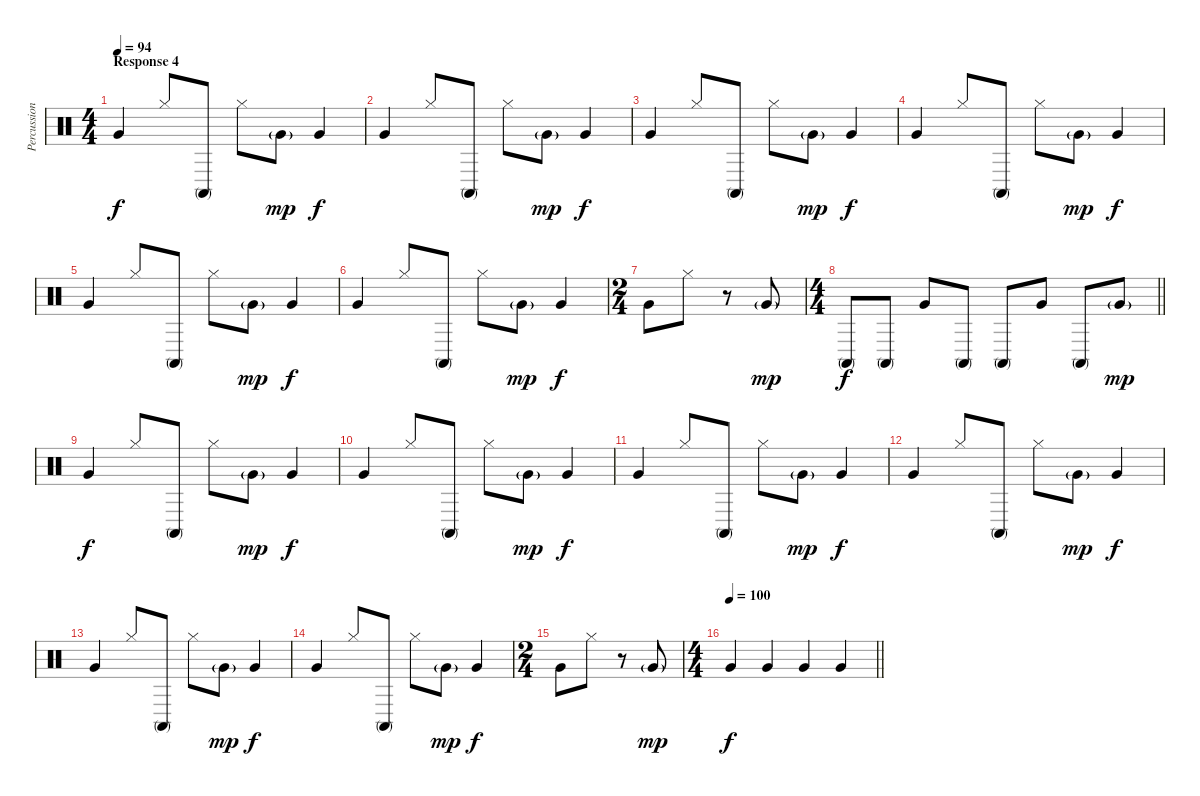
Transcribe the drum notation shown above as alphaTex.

\track ("Percussion" "Percussion") {instrument percussion}
\staff {score}
\articulation defaults
\ts (4 4)
\section ("" "Response 4")
\tempo 94
\clef neutral
\ks c "Very Low Tom (hit)".4{dy f} "Hi-Hat (closed)".8 "Conga high (mute)".8 "Hi-Hat (closed)".8 "Very Low Tom (hit)"{g}.8{dy mp} "Very Low Tom (hit)".4{dy f}
|
"Very Low Tom (hit)".4 "Hi-Hat (closed)".8 "Conga high (mute)".8 "Hi-Hat (closed)".8 "Very Low Tom (hit)"{g}.8{dy mp} "Very Low Tom (hit)".4{dy f} |
"Very Low Tom (hit)".4 "Hi-Hat (closed)".8 "Conga high (mute)".8 "Hi-Hat (closed)".8 "Very Low Tom (hit)"{g}.8{dy mp} "Very Low Tom (hit)".4{dy f} |
"Very Low Tom (hit)".4 "Hi-Hat (closed)".8 "Conga high (mute)".8 "Hi-Hat (closed)".8 "Very Low Tom (hit)"{g}.8{dy mp} "Very Low Tom (hit)".4{dy f} |
"Very Low Tom (hit)".4 "Hi-Hat (closed)".8 "Conga high (mute)".8 "Hi-Hat (closed)".8 "Very Low Tom (hit)"{g}.8{dy mp} "Very Low Tom (hit)".4{dy f} |
"Very Low Tom (hit)".4 "Hi-Hat (closed)".8 "Conga high (mute)".8 "Hi-Hat (closed)".8 "Very Low Tom (hit)"{g}.8{dy mp} "Very Low Tom (hit)".4{dy f} |
\ts (2 4)
"Very Low Tom (hit)".8 "Hi-Hat (closed)".8 r.8 "Very Low Tom (hit)"{g}.8{dy mp} |
\ts (4 4)
\barLineRight lightlight "Conga high (mute)".8{dy f} "Conga high (mute)".8 "Very Low Tom (hit)".8 "Conga high (mute)".8 "Conga high (mute)".8 "Very Low Tom (hit)".8 "Conga high (mute)".8 "Very Low Tom (hit)"{g}.8{dy mp}
|
"Very Low Tom (hit)".4{dy f} "Hi-Hat (closed)".8 "Conga high (mute)".8 "Hi-Hat (closed)".8 "Very Low Tom (hit)"{g}.8{dy mp} "Very Low Tom (hit)".4{dy f} |
"Very Low Tom (hit)".4 "Hi-Hat (closed)".8 "Conga high (mute)".8 "Hi-Hat (closed)".8 "Very Low Tom (hit)"{g}.8{dy mp} "Very Low Tom (hit)".4{dy f} |
"Very Low Tom (hit)".4 "Hi-Hat (closed)".8 "Conga high (mute)".8 "Hi-Hat (closed)".8 "Very Low Tom (hit)"{g}.8{dy mp} "Very Low Tom (hit)".4{dy f} |
"Very Low Tom (hit)".4 "Hi-Hat (closed)".8 "Conga high (mute)".8 "Hi-Hat (closed)".8 "Very Low Tom (hit)"{g}.8{dy mp} "Very Low Tom (hit)".4{dy f} |
"Very Low Tom (hit)".4 "Hi-Hat (closed)".8 "Conga high (mute)".8 "Hi-Hat (closed)".8 "Very Low Tom (hit)"{g}.8{dy mp} "Very Low Tom (hit)".4{dy f} |
"Very Low Tom (hit)".4 "Hi-Hat (closed)".8 "Conga high (mute)".8 "Hi-Hat (closed)".8 "Very Low Tom (hit)"{g}.8{dy mp} "Very Low Tom (hit)".4{dy f} |
\ts (2 4)
"Very Low Tom (hit)".8 "Hi-Hat (closed)".8 r.8 "Very Low Tom (hit)"{g}.8{dy mp} |
\ts (4 4)
\tempo 100
\barLineRight lightlight "Very Low Tom (hit)".4{dy f} "Very Low Tom (hit)".4 "Very Low Tom (hit)".4 "Very Low Tom (hit)".4
